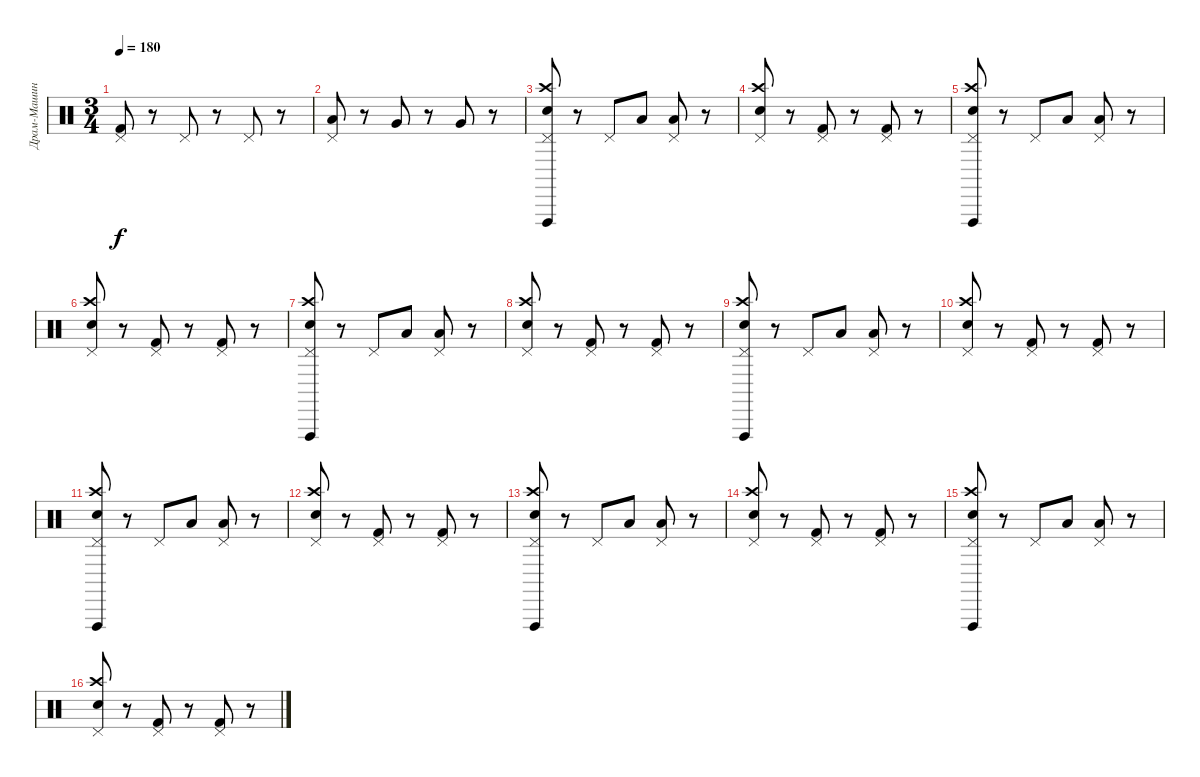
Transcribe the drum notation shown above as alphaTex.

\track ("Драм-Машина" "Драм-Машин") {instrument percussion}
\staff {score}
\articulation defaults
\ts (3 4)
\tempo 180
\clef neutral
\ks c
("Pedal Hi-Hat (hit)" "Kick (hit) 2").8{dy f} r.8 "Pedal Hi-Hat (hit)".8 r.8 "Pedal Hi-Hat (hit)".8 r.8 |
("Pedal Hi-Hat (hit)" "Low Floor Tom (hit)").8 r.8 "Very Low Tom (hit)".8 r.8 "Very Low Tom (hit)".8 r.8 |
("Crash high (hit)" "Pedal Hi-Hat (hit)" "Vibraslap (hit)" "Electric Snare (hit)").8 r.8 "Pedal Hi-Hat (hit)".8 "Low Floor Tom (hit)".8 ("Pedal Hi-Hat (hit)" "Low Floor Tom (hit)").8 r.8 |
("Crash high (hit)" "Pedal Hi-Hat (hit)" "Electric Snare (hit)").8 r.8 ("Pedal Hi-Hat (hit)" "Kick (hit) 2").8 r.8 ("Pedal Hi-Hat (hit)" "Kick (hit) 2").8 r.8 |
("Crash high (hit)" "Pedal Hi-Hat (hit)" "Vibraslap (hit)" "Electric Snare (hit)").8 r.8 "Pedal Hi-Hat (hit)".8 "Low Floor Tom (hit)".8 ("Pedal Hi-Hat (hit)" "Low Floor Tom (hit)").8 r.8 |
("Crash high (hit)" "Pedal Hi-Hat (hit)" "Electric Snare (hit)").8 r.8 ("Pedal Hi-Hat (hit)" "Kick (hit) 2").8 r.8 ("Pedal Hi-Hat (hit)" "Kick (hit) 2").8 r.8 |
("Crash high (hit)" "Pedal Hi-Hat (hit)" "Vibraslap (hit)" "Electric Snare (hit)").8 r.8 "Pedal Hi-Hat (hit)".8 "Low Floor Tom (hit)".8 ("Pedal Hi-Hat (hit)" "Low Floor Tom (hit)").8 r.8 |
("Crash high (hit)" "Pedal Hi-Hat (hit)" "Electric Snare (hit)").8 r.8 ("Pedal Hi-Hat (hit)" "Kick (hit) 2").8 r.8 ("Pedal Hi-Hat (hit)" "Kick (hit) 2").8 r.8 |
("Crash high (hit)" "Pedal Hi-Hat (hit)" "Vibraslap (hit)" "Electric Snare (hit)").8 r.8 "Pedal Hi-Hat (hit)".8 "Low Floor Tom (hit)".8 ("Pedal Hi-Hat (hit)" "Low Floor Tom (hit)").8 r.8 |
("Crash high (hit)" "Pedal Hi-Hat (hit)" "Electric Snare (hit)").8 r.8 ("Pedal Hi-Hat (hit)" "Kick (hit) 2").8 r.8 ("Pedal Hi-Hat (hit)" "Kick (hit) 2").8 r.8 |
("Crash high (hit)" "Pedal Hi-Hat (hit)" "Vibraslap (hit)" "Electric Snare (hit)").8 r.8 "Pedal Hi-Hat (hit)".8 "Low Floor Tom (hit)".8 ("Pedal Hi-Hat (hit)" "Low Floor Tom (hit)").8 r.8 |
("Crash high (hit)" "Pedal Hi-Hat (hit)" "Electric Snare (hit)").8 r.8 ("Pedal Hi-Hat (hit)" "Kick (hit) 2").8 r.8 ("Pedal Hi-Hat (hit)" "Kick (hit) 2").8 r.8 |
("Crash high (hit)" "Pedal Hi-Hat (hit)" "Vibraslap (hit)" "Electric Snare (hit)").8 r.8 "Pedal Hi-Hat (hit)".8 "Low Floor Tom (hit)".8 ("Pedal Hi-Hat (hit)" "Low Floor Tom (hit)").8 r.8 |
("Crash high (hit)" "Pedal Hi-Hat (hit)" "Electric Snare (hit)").8 r.8 ("Pedal Hi-Hat (hit)" "Kick (hit) 2").8 r.8 ("Pedal Hi-Hat (hit)" "Kick (hit) 2").8 r.8 |
("Crash high (hit)" "Pedal Hi-Hat (hit)" "Vibraslap (hit)" "Electric Snare (hit)").8 r.8 "Pedal Hi-Hat (hit)".8 "Low Floor Tom (hit)".8 ("Pedal Hi-Hat (hit)" "Low Floor Tom (hit)").8 r.8 |
("Crash high (hit)" "Pedal Hi-Hat (hit)" "Electric Snare (hit)").8 r.8 ("Pedal Hi-Hat (hit)" "Kick (hit) 2").8 r.8 ("Pedal Hi-Hat (hit)" "Kick (hit) 2").8 r.8
